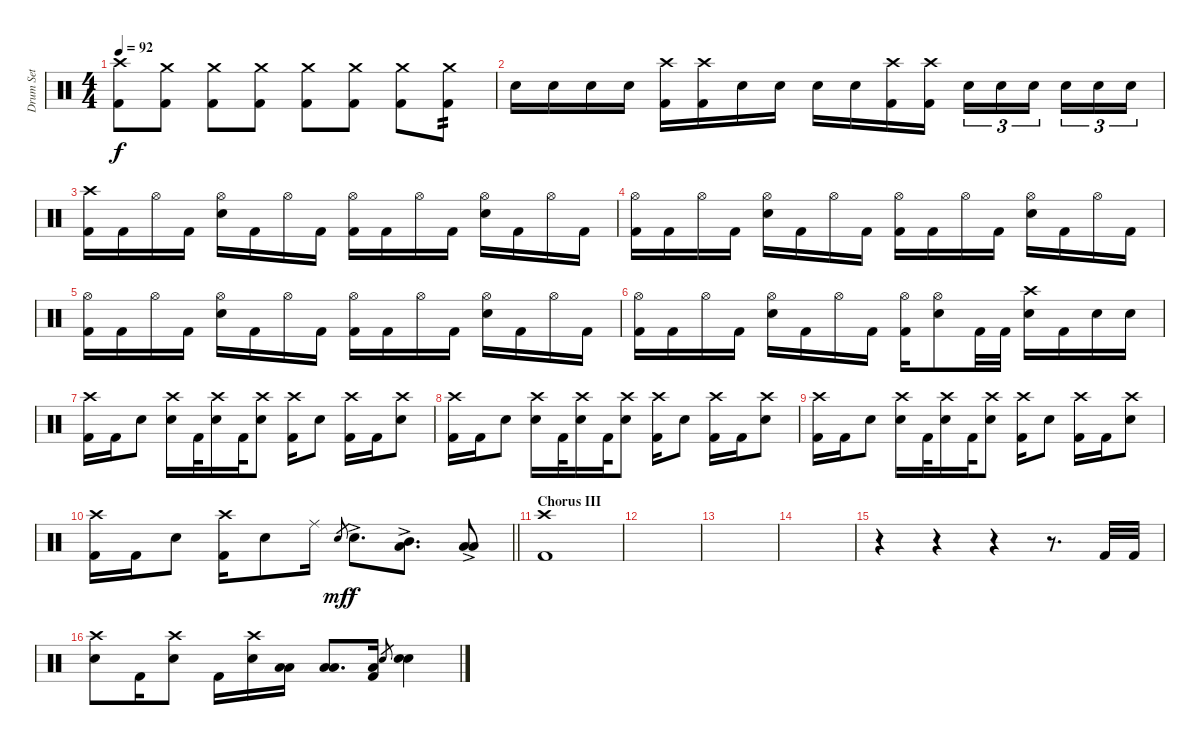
\track ("Drum Set" "Drum Set") {instrument percussion}
\staff {score}
\articulation defaults
\ts (4 4)
\tempo 92
\clef neutral
\ks c
("Crash high (hit)" "Kick (hit) 2").8{dy f} ("Crash medium (hit)" "Kick (hit) 2").8 ("Crash medium (hit)" "Kick (hit) 2").8 ("Crash medium (hit)" "Kick (hit) 2").8 ("Crash medium (hit)" "Kick (hit) 2").8 ("Crash medium (hit)" "Kick (hit) 2").8 ("Crash medium (hit)" "Kick (hit) 2").8 ("Crash medium (hit)" "Kick (hit) 2").8{tp 2} |
"Electric Snare (hit)".16 "Electric Snare (hit)".16 "Electric Snare (hit)".16 "Electric Snare (hit)".16 ("Crash high (hit)" "Kick (hit) 2").16 ("Crash high (hit)" "Kick (hit) 2").16 "Electric Snare (hit)".16 "Electric Snare (hit)".16 "Electric Snare (hit)".16 "Electric Snare (hit)".16 ("Crash high (hit)" "Kick (hit) 2").16 ("Crash high (hit)" "Kick (hit) 2").16 "Electric Snare (hit)".16{tu (3 2)} "Electric Snare (hit)".16{tu (3 2)} "Electric Snare (hit)".16{tu (3 2) beam splitsecondary} "Electric Snare (hit)".16{tu (3 2)} "Electric Snare (hit)".16{tu (3 2)} "Electric Snare (hit)".16{tu (3 2)} |
("Crash high (hit)" "Kick (hit) 2").16 "Kick (hit) 2".16 "Hi-Hat (open)".16 "Kick (hit) 2".16 ("Hi-Hat (open)" "Electric Snare (hit)").16 "Kick (hit) 2".16 "Hi-Hat (open)".16 "Kick (hit) 2".16 ("Hi-Hat (open)" "Kick (hit) 2").16 "Kick (hit) 2".16 "Hi-Hat (open)".16 "Kick (hit) 2".16 ("Hi-Hat (open)" "Electric Snare (hit)").16 "Kick (hit) 2".16 "Hi-Hat (open)".16 "Kick (hit) 2".16 |
("Hi-Hat (open)" "Kick (hit) 2").16 "Kick (hit) 2".16 "Hi-Hat (open)".16 "Kick (hit) 2".16 ("Hi-Hat (open)" "Electric Snare (hit)").16 "Kick (hit) 2".16 "Hi-Hat (open)".16 "Kick (hit) 2".16 ("Hi-Hat (open)" "Kick (hit) 2").16 "Kick (hit) 2".16 "Hi-Hat (open)".16 "Kick (hit) 2".16 ("Hi-Hat (open)" "Electric Snare (hit)").16 "Kick (hit) 2".16 "Hi-Hat (open)".16 "Kick (hit) 2".16 |
("Hi-Hat (open)" "Kick (hit) 2").16 "Kick (hit) 2".16 "Hi-Hat (open)".16 "Kick (hit) 2".16 ("Hi-Hat (open)" "Electric Snare (hit)").16 "Kick (hit) 2".16 "Hi-Hat (open)".16 "Kick (hit) 2".16 ("Hi-Hat (open)" "Kick (hit) 2").16 "Kick (hit) 2".16 "Hi-Hat (open)".16 "Kick (hit) 2".16 ("Hi-Hat (open)" "Electric Snare (hit)").16 "Kick (hit) 2".16 "Hi-Hat (open)".16 "Kick (hit) 2".16 |
("Hi-Hat (open)" "Kick (hit) 2").16 "Kick (hit) 2".16 "Hi-Hat (open)".16 "Kick (hit) 2".16 ("Hi-Hat (open)" "Electric Snare (hit)").16 "Kick (hit) 2".16 "Hi-Hat (open)".16 "Kick (hit) 2".16 ("Hi-Hat (open)" "Kick (hit) 2").16 ("Hi-Hat (open)" "Electric Snare (hit)").8 "Kick (hit) 2".32 "Kick (hit) 2".32 ("Crash high (hit)" "Electric Snare (hit)").16 "Kick (hit) 2".16 "Electric Snare (hit)".16 "Electric Snare (hit)".16 |
("Crash high (hit)" "Kick (hit) 2").16 "Kick (hit) 2".16 "Electric Snare (hit)".8 ("Crash high (hit)" "Electric Snare (hit)").16 "Kick (hit) 2".32 ("Crash high (hit)" "Electric Snare (hit)").16 "Kick (hit) 2".32 ("Crash high (hit)" "Electric Snare (hit)").8 ("Kick (hit) 2" "Crash high (hit)").16 "Electric Snare (hit)".8 ("Crash high (hit)" "Kick (hit) 2").16 "Kick (hit) 2".16 ("Crash high (hit)" "Electric Snare (hit)").8 |
("Crash high (hit)" "Kick (hit) 2").16 "Kick (hit) 2".16 "Electric Snare (hit)".8 ("Crash high (hit)" "Electric Snare (hit)").16 "Kick (hit) 2".32 ("Crash high (hit)" "Electric Snare (hit)").16 "Kick (hit) 2".32 ("Crash high (hit)" "Electric Snare (hit)").8 ("Kick (hit) 2" "Crash high (hit)").16 "Electric Snare (hit)".8 ("Crash high (hit)" "Kick (hit) 2").16 "Kick (hit) 2".16 ("Crash high (hit)" "Electric Snare (hit)").8 |
("Crash high (hit)" "Kick (hit) 2").16 "Kick (hit) 2".16 "Electric Snare (hit)".8 ("Crash high (hit)" "Electric Snare (hit)").16 "Kick (hit) 2".32 ("Crash high (hit)" "Electric Snare (hit)").16 "Kick (hit) 2".32 ("Crash high (hit)" "Electric Snare (hit)").8 ("Kick (hit) 2" "Crash high (hit)").16 "Electric Snare (hit)".8 ("Crash high (hit)" "Kick (hit) 2").16 "Kick (hit) 2".16 ("Crash high (hit)" "Electric Snare (hit)").8 |
\barLineRight lightlight
("Crash high (hit)" "Kick (hit) 2").16 "Kick (hit) 2".16 "Electric Snare (hit)".8 ("Crash high (hit)" "Kick (hit) 2").16 "Electric Snare (hit)".8 "Ride (middle)".16 "Electric Snare (hit)".8{gr dy mf} "Electric Snare (hit)"{ac}.8{d dy f} ("Mid Tom (hit)"{ac} "Low Tom (hit)"{ac}).8{d} ("Low Tom (hit)"{ac} "Low Floor Tom (hit)"{ac}).8 |
\section ("" "Chorus III")
("Crash high (hit)" "Kick (hit) 2").1 |
|
|
|
r.4 r.4 r.4 r.8{d} "Kick (hit) 2".32 "Kick (hit) 2".32 |
("Crash high (hit)" "Electric Snare (hit)").8 "Kick (hit) 2".16 ("Crash high (hit)" "Electric Snare (hit)").8 "Kick (hit) 2".16 ("Crash high (hit)" "Electric Snare (hit)").16 ("Low Floor Tom (hit)" "Low Tom (hit)").16 ("Low Floor Tom (hit)" "Low Tom (hit)").8{d} ("Low Floor Tom (hit)" "Kick (hit) 2").16 "Electric Snare (hit)".8{gr} ("Electric Snare (hit)" "Electric Snare (hit)").4
